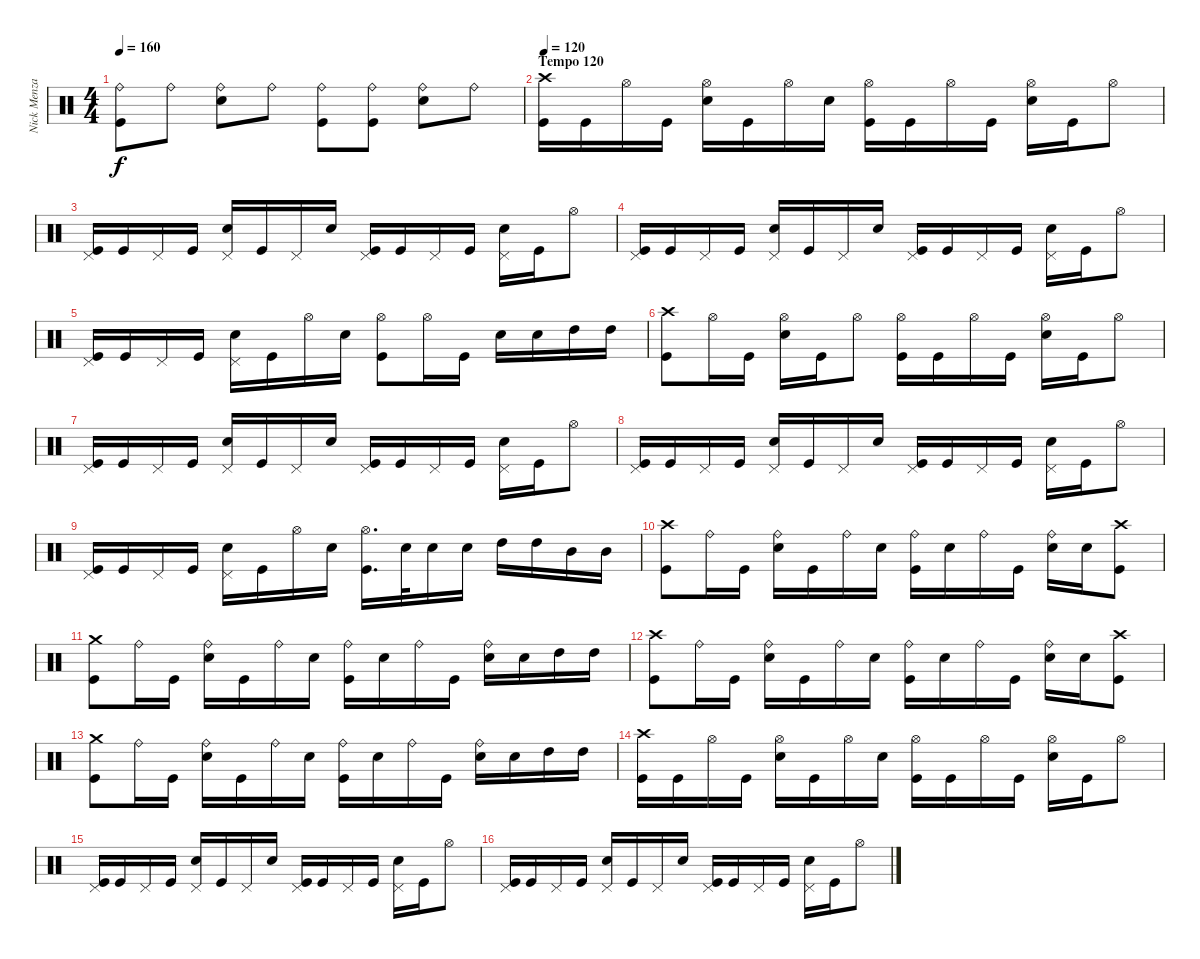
\track ("Nick Menza" "Nick Menza") {instrument percussion}
\staff {score}
\articulation defaults
\ts (4 4)
\tempo 160
\clef neutral
\ks c
("Ride (bell)" "Kick (hit)").8{dy f} "Ride (bell)".8 ("Ride (bell)" "Snare (hit) 2").8 "Ride (bell)".8 ("Ride (bell)" "Kick (hit)").8 ("Ride (bell)" "Kick (hit)").8 ("Ride (bell)" "Snare (hit) 2").8 "Ride (bell)".8 |
\section ("" "Tempo 120")
\tempo 120
("Crash high (hit)" "Kick (hit)").16 "Kick (hit)".16 "Hi-Hat (open)".16 "Kick (hit)".16 ("Hi-Hat (open)" "Snare (hit) 2").16 "Kick (hit)".16 "Hi-Hat (open)".16 "Snare (hit) 2".16 ("Hi-Hat (open)" "Kick (hit)").16 "Kick (hit)".16 "Hi-Hat (open)".16 "Kick (hit)".16 ("Hi-Hat (open)" "Snare (hit) 2").16 "Kick (hit)".16 "Hi-Hat (open)".8 |
("Pedal Hi-Hat (hit)" "Kick (hit)").16 "Kick (hit)".16 "Pedal Hi-Hat (hit)".16 "Kick (hit)".16 ("Pedal Hi-Hat (hit)" "Snare (hit) 2").16 "Kick (hit)".16 "Pedal Hi-Hat (hit)".16 "Snare (hit) 2".16 ("Pedal Hi-Hat (hit)" "Kick (hit)").16 "Kick (hit)".16 "Pedal Hi-Hat (hit)".16 "Kick (hit)".16 ("Pedal Hi-Hat (hit)" "Snare (hit) 2").16 "Kick (hit)".16 "Hi-Hat (open)".8 |
("Pedal Hi-Hat (hit)" "Kick (hit)").16 "Kick (hit)".16 "Pedal Hi-Hat (hit)".16 "Kick (hit)".16 ("Pedal Hi-Hat (hit)" "Snare (hit) 2").16 "Kick (hit)".16 "Pedal Hi-Hat (hit)".16 "Snare (hit) 2".16 ("Pedal Hi-Hat (hit)" "Kick (hit)").16 "Kick (hit)".16 "Pedal Hi-Hat (hit)".16 "Kick (hit)".16 ("Pedal Hi-Hat (hit)" "Snare (hit) 2").16 "Kick (hit)".16 "Hi-Hat (open)".8 |
("Pedal Hi-Hat (hit)" "Kick (hit)").16 "Kick (hit)".16 "Pedal Hi-Hat (hit)".16 "Kick (hit)".16 ("Pedal Hi-Hat (hit)" "Snare (hit) 2").16 "Kick (hit)".16 "Hi-Hat (open)".16 "Snare (hit) 2".16 ("Hi-Hat (open)" "Kick (hit)").8 "Hi-Hat (open)".16 "Kick (hit)".16 "Snare (hit) 2".16 "Snare (hit) 2".16 "High Tom (hit)".16 "High Tom (hit)".16 |
("Crash high (hit)" "Kick (hit)").8 "Hi-Hat (open)".16 "Kick (hit)".16 ("Hi-Hat (open)" "Snare (hit) 2").16 "Kick (hit)".16 "Hi-Hat (open)".8 ("Hi-Hat (open)" "Kick (hit)").16 "Kick (hit)".16 "Hi-Hat (open)".16 "Kick (hit)".16 ("Hi-Hat (open)" "Snare (hit) 2").16 "Kick (hit)".16 "Hi-Hat (open)".8 |
("Pedal Hi-Hat (hit)" "Kick (hit)").16 "Kick (hit)".16 "Pedal Hi-Hat (hit)".16 "Kick (hit)".16 ("Pedal Hi-Hat (hit)" "Snare (hit) 2").16 "Kick (hit)".16 "Pedal Hi-Hat (hit)".16 "Snare (hit) 2".16 ("Pedal Hi-Hat (hit)" "Kick (hit)").16 "Kick (hit)".16 "Pedal Hi-Hat (hit)".16 "Kick (hit)".16 ("Pedal Hi-Hat (hit)" "Snare (hit) 2").16 "Kick (hit)".16 "Hi-Hat (open)".8 |
("Pedal Hi-Hat (hit)" "Kick (hit)").16 "Kick (hit)".16 "Pedal Hi-Hat (hit)".16 "Kick (hit)".16 ("Pedal Hi-Hat (hit)" "Snare (hit) 2").16 "Kick (hit)".16 "Pedal Hi-Hat (hit)".16 "Snare (hit) 2".16 ("Pedal Hi-Hat (hit)" "Kick (hit)").16 "Kick (hit)".16 "Pedal Hi-Hat (hit)".16 "Kick (hit)".16 ("Pedal Hi-Hat (hit)" "Snare (hit) 2").16 "Kick (hit)".16 "Hi-Hat (open)".8 |
("Pedal Hi-Hat (hit)" "Kick (hit)").16 "Kick (hit)".16 "Pedal Hi-Hat (hit)".16 "Kick (hit)".16 ("Pedal Hi-Hat (hit)" "Snare (hit) 2").16 "Kick (hit)".16 "Hi-Hat (open)".16 "Snare (hit) 2".16 ("Hi-Hat (open)" "Kick (hit)").16{d} "Snare (hit) 2".32 "Snare (hit) 2".16 "Snare (hit) 2".16 "High Tom (hit)".16 "High Tom (hit)".16 "Mid Tom (hit)".16 "Mid Tom (hit)".16 |
("Crash high (hit)" "Kick (hit)").8 "Ride (bell)".16 "Kick (hit)".16 ("Ride (bell)" "Snare (hit) 2").16 "Kick (hit)".16 "Ride (bell)".16 "Snare (hit) 2".16 ("Ride (bell)" "Kick (hit)").16 "Snare (hit) 2".16 "Ride (bell)".16 "Kick (hit)".16 ("Ride (bell)" "Snare (hit) 2").16 "Snare (hit) 2".16 ("Crash high (hit)" "Kick (hit)").8 |
("Crash medium (hit)" "Kick (hit)").8 "Ride (bell)".16 "Kick (hit)".16 ("Ride (bell)" "Snare (hit) 2").16 "Kick (hit)".16 "Ride (bell)".16 "Snare (hit) 2".16 ("Ride (bell)" "Kick (hit)").16 "Snare (hit) 2".16 "Ride (bell)".16 "Kick (hit)".16 ("Ride (bell)" "Snare (hit) 2").16 "Snare (hit) 2".16 "High Tom (hit)".16 "High Tom (hit)".16 |
("Crash high (hit)" "Kick (hit)").8 "Ride (bell)".16 "Kick (hit)".16 ("Ride (bell)" "Snare (hit) 2").16 "Kick (hit)".16 "Ride (bell)".16 "Snare (hit) 2".16 ("Ride (bell)" "Kick (hit)").16 "Snare (hit) 2".16 "Ride (bell)".16 "Kick (hit)".16 ("Ride (bell)" "Snare (hit) 2").16 "Snare (hit) 2".16 ("Crash high (hit)" "Kick (hit)").8 |
("Crash medium (hit)" "Kick (hit)").8 "Ride (bell)".16 "Kick (hit)".16 ("Ride (bell)" "Snare (hit) 2").16 "Kick (hit)".16 "Ride (bell)".16 "Snare (hit) 2".16 ("Ride (bell)" "Kick (hit)").16 "Snare (hit) 2".16 "Ride (bell)".16 "Kick (hit)".16 ("Ride (bell)" "Snare (hit) 2").16 "Snare (hit) 2".16 "High Tom (hit)".16 "High Tom (hit)".16 |
("Crash high (hit)" "Kick (hit)").16 "Kick (hit)".16 "Hi-Hat (open)".16 "Kick (hit)".16 ("Hi-Hat (open)" "Snare (hit) 2").16 "Kick (hit)".16 "Hi-Hat (open)".16 "Snare (hit) 2".16 ("Hi-Hat (open)" "Kick (hit)").16 "Kick (hit)".16 "Hi-Hat (open)".16 "Kick (hit)".16 ("Hi-Hat (open)" "Snare (hit) 2").16 "Kick (hit)".16 "Hi-Hat (open)".8 |
("Pedal Hi-Hat (hit)" "Kick (hit)").16 "Kick (hit)".16 "Pedal Hi-Hat (hit)".16 "Kick (hit)".16 ("Pedal Hi-Hat (hit)" "Snare (hit) 2").16 "Kick (hit)".16 "Pedal Hi-Hat (hit)".16 "Snare (hit) 2".16 ("Pedal Hi-Hat (hit)" "Kick (hit)").16 "Kick (hit)".16 "Pedal Hi-Hat (hit)".16 "Kick (hit)".16 ("Pedal Hi-Hat (hit)" "Snare (hit) 2").16 "Kick (hit)".16 "Hi-Hat (open)".8 |
("Pedal Hi-Hat (hit)" "Kick (hit)").16 "Kick (hit)".16 "Pedal Hi-Hat (hit)".16 "Kick (hit)".16 ("Pedal Hi-Hat (hit)" "Snare (hit) 2").16 "Kick (hit)".16 "Pedal Hi-Hat (hit)".16 "Snare (hit) 2".16 ("Pedal Hi-Hat (hit)" "Kick (hit)").16 "Kick (hit)".16 "Pedal Hi-Hat (hit)".16 "Kick (hit)".16 ("Pedal Hi-Hat (hit)" "Snare (hit) 2").16 "Kick (hit)".16 "Hi-Hat (open)".8
